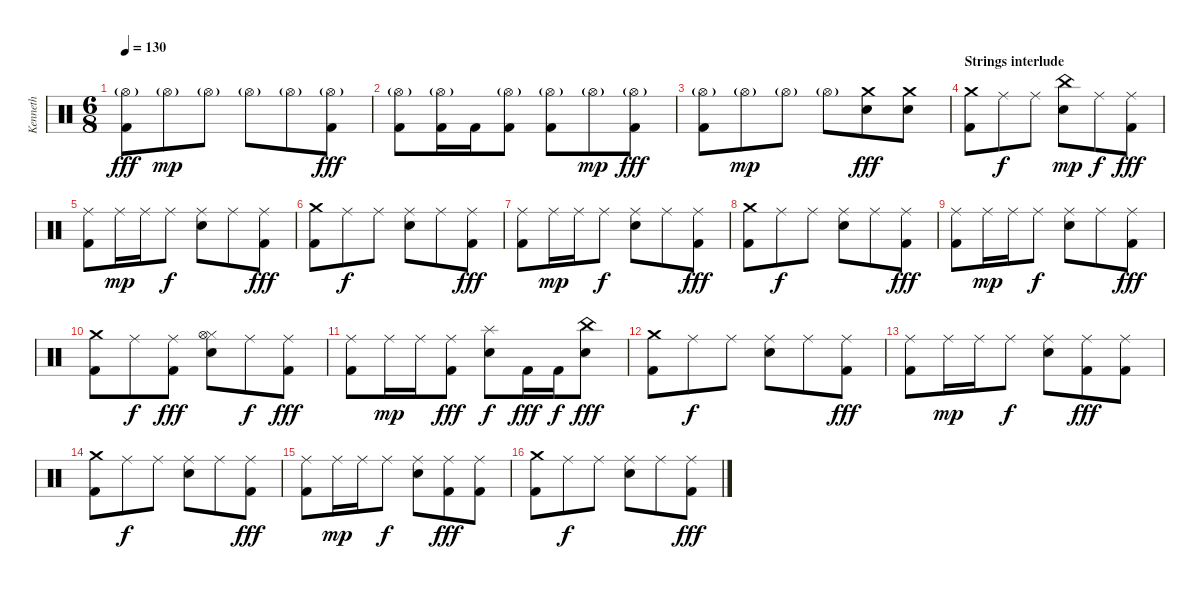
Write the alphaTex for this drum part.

\track ("Kenneth" "Kenneth") {instrument percussion}
\staff {score}
\articulation defaults
\ts (6 8)
\tempo 130
\clef neutral
\ks c
("Hi-Hat (open)"{g} "Kick (hit) 2").8{dy fff} "Hi-Hat (open)"{g}.8{dy mp} "Hi-Hat (open)"{g}.8 "Hi-Hat (open)"{g}.8 "Hi-Hat (open)"{g}.8 ("Hi-Hat (open)"{g} "Kick (hit) 2").8{dy fff} |
("Hi-Hat (open)"{g} "Kick (hit) 2").8 ("Hi-Hat (open)"{g} "Kick (hit) 2").16 "Kick (hit) 2".16 ("Hi-Hat (open)"{g} "Kick (hit) 2").8 ("Hi-Hat (open)"{g} "Kick (hit) 2").8 "Hi-Hat (open)"{g}.8{dy mp} ("Hi-Hat (open)"{g} "Kick (hit) 2").8{dy fff} |
("Hi-Hat (open)"{g} "Kick (hit) 2").8 "Hi-Hat (open)"{g}.8{dy mp} "Hi-Hat (open)"{g}.8 "Hi-Hat (open)"{g}.8 ("Crash medium (hit)" "Electric Snare (hit)").8{dy fff} ("Crash medium (hit)" "Electric Snare (hit)").8 |
\section ("" "Strings interlude")
("Crash medium (hit)" "Kick (hit) 2").8 "Ride (middle)".8{dy f} "Ride (middle)".8 ("China (hit)" "Electric Snare (hit)").8{dy mp} "Ride (middle)".8{dy f} ("Ride (middle)" "Kick (hit) 2").8{dy fff} |
("Ride (middle)" "Kick (hit) 2").8 "Ride (middle)".16{dy mp} "Ride (middle)".16 "Ride (middle)".8{dy f} ("Ride (middle)" "Electric Snare (hit)").8 "Ride (middle)".8 ("Ride (middle)" "Kick (hit) 2").8{dy fff} |
("Crash medium (hit)" "Kick (hit) 2").8 "Ride (middle)".8{dy f} "Ride (middle)".8 ("Ride (middle)" "Electric Snare (hit)").8 "Ride (middle)".8 ("Ride (middle)" "Kick (hit) 2").8{dy fff} |
("Ride (middle)" "Kick (hit) 2").8 "Ride (middle)".16{dy mp} "Ride (middle)".16 "Ride (middle)".8{dy f} ("Ride (middle)" "Electric Snare (hit)").8 "Ride (middle)".8 ("Ride (middle)" "Kick (hit) 2").8{dy fff} |
("Crash medium (hit)" "Kick (hit) 2").8 "Ride (middle)".8{dy f} "Ride (middle)".8 ("Ride (middle)" "Electric Snare (hit)").8 "Ride (middle)".8 ("Ride (middle)" "Kick (hit) 2").8{dy fff} |
("Ride (middle)" "Kick (hit) 2").8 "Ride (middle)".16{dy mp} "Ride (middle)".16 "Ride (middle)".8{dy f} ("Ride (middle)" "Electric Snare (hit)").8 "Ride (middle)".8 ("Ride (middle)" "Kick (hit) 2").8{dy fff} |
("Crash medium (hit)" "Kick (hit) 2").8 "Ride (middle)".8{dy f} ("Ride (middle)" "Kick (hit) 2").8{dy fff} ("Hi-Hat (closed)" "Hi-Hat (open)" "Electric Snare (hit)").8 "Ride (middle)".8{dy f} ("Ride (middle)" "Kick (hit) 2").8{dy fff} |
("Ride (middle)" "Kick (hit) 2").8 "Ride (middle)".16{dy mp} "Ride (middle)".16 ("Ride (middle)" "Kick (hit) 2").8{dy fff} ("Splash (hit)" "Electric Snare (hit)").8{dy f} "Kick (hit) 2".16{dy fff} "Kick (hit) 2".16{dy f} ("China (hit)" "Electric Snare (hit)").8{dy fff} |
("Crash medium (hit)" "Kick (hit) 2").8 "Ride (middle)".8{dy f} "Ride (middle)".8 ("Ride (middle)" "Electric Snare (hit)").8 "Ride (middle)".8 ("Ride (middle)" "Kick (hit) 2").8{dy fff} |
("Ride (middle)" "Kick (hit) 2").8 "Ride (middle)".16{dy mp} "Ride (middle)".16 "Ride (middle)".8{dy f} ("Ride (middle)" "Electric Snare (hit)").8 ("Ride (middle)" "Kick (hit) 2").8{dy fff} ("Ride (middle)" "Kick (hit) 2").8 |
("Crash medium (hit)" "Kick (hit) 2").8 "Ride (middle)".8{dy f} "Ride (middle)".8 ("Ride (middle)" "Electric Snare (hit)").8 "Ride (middle)".8 ("Ride (middle)" "Kick (hit) 2").8{dy fff} |
("Ride (middle)" "Kick (hit) 2").8 "Ride (middle)".16{dy mp} "Ride (middle)".16 "Ride (middle)".8{dy f} ("Ride (middle)" "Electric Snare (hit)").8 ("Ride (middle)" "Kick (hit) 2").8{dy fff} ("Ride (middle)" "Kick (hit) 2").8 |
("Crash medium (hit)" "Kick (hit) 2").8 "Ride (middle)".8{dy f} "Ride (middle)".8 ("Ride (middle)" "Electric Snare (hit)").8 "Ride (middle)".8 ("Ride (middle)" "Kick (hit) 2").8{dy fff}
